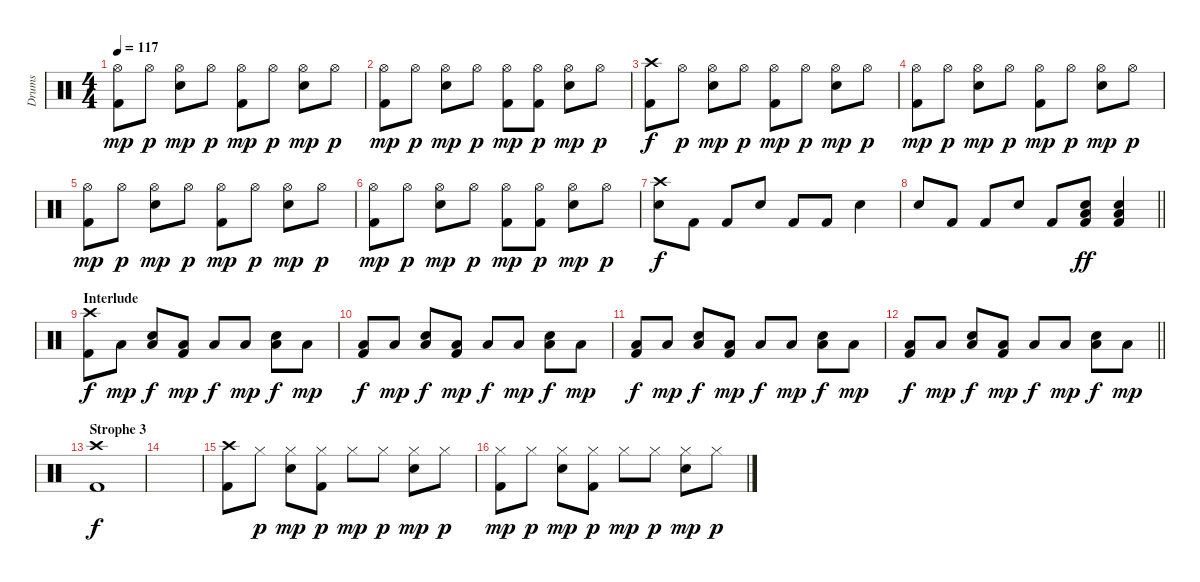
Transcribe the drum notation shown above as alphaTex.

\track ("Drums" "Drums") {instrument percussion}
\staff {score}
\articulation defaults
\ts (4 4)
\tempo 117
\clef neutral
\ks c
("Hi-Hat (open)" "Kick (hit) 2").8{dy mp} "Hi-Hat (open)".8{dy p} ("Hi-Hat (open)" "Snare (hit) 2").8{dy mp} "Hi-Hat (open)".8{dy p} ("Hi-Hat (open)" "Kick (hit) 2").8{dy mp} "Hi-Hat (open)".8{dy p} ("Hi-Hat (open)" "Snare (hit) 2").8{dy mp} "Hi-Hat (open)".8{dy p} |
("Hi-Hat (open)" "Kick (hit) 2").8{dy mp} "Hi-Hat (open)".8{dy p} ("Hi-Hat (open)" "Snare (hit) 2").8{dy mp} "Hi-Hat (open)".8{dy p} ("Hi-Hat (open)" "Kick (hit) 2").8{dy mp} ("Hi-Hat (open)" "Kick (hit) 2").8{dy p} ("Hi-Hat (open)" "Snare (hit) 2").8{dy mp} "Hi-Hat (open)".8{dy p} |
("Crash high (hit)" "Kick (hit) 2").8{dy f} "Hi-Hat (open)".8{dy p} ("Hi-Hat (open)" "Snare (hit) 2").8{dy mp} "Hi-Hat (open)".8{dy p} ("Hi-Hat (open)" "Kick (hit) 2").8{dy mp} "Hi-Hat (open)".8{dy p} ("Hi-Hat (open)" "Snare (hit) 2").8{dy mp} "Hi-Hat (open)".8{dy p} |
("Hi-Hat (open)" "Kick (hit) 2").8{dy mp} "Hi-Hat (open)".8{dy p} ("Hi-Hat (open)" "Snare (hit) 2").8{dy mp} "Hi-Hat (open)".8{dy p} ("Hi-Hat (open)" "Kick (hit) 2").8{dy mp} "Hi-Hat (open)".8{dy p} ("Hi-Hat (open)" "Snare (hit) 2").8{dy mp} "Hi-Hat (open)".8{dy p} |
("Hi-Hat (open)" "Kick (hit) 2").8{dy mp} "Hi-Hat (open)".8{dy p} ("Hi-Hat (open)" "Snare (hit) 2").8{dy mp} "Hi-Hat (open)".8{dy p} ("Hi-Hat (open)" "Kick (hit) 2").8{dy mp} "Hi-Hat (open)".8{dy p} ("Hi-Hat (open)" "Snare (hit) 2").8{dy mp} "Hi-Hat (open)".8{dy p} |
("Hi-Hat (open)" "Kick (hit) 2").8{dy mp} "Hi-Hat (open)".8{dy p} ("Hi-Hat (open)" "Snare (hit) 2").8{dy mp} "Hi-Hat (open)".8{dy p} ("Hi-Hat (open)" "Kick (hit) 2").8{dy mp} ("Hi-Hat (open)" "Kick (hit) 2").8{dy p} ("Hi-Hat (open)" "Snare (hit) 2").8{dy mp} "Hi-Hat (open)".8{dy p} |
("Crash high (hit)" "Snare (hit) 2").8{dy f} "Kick (hit) 2".8 "Kick (hit) 2".8 "Snare (hit) 2".8 "Kick (hit) 2".8 "Kick (hit) 2".8 "Snare (hit) 2".4 |
\barLineRight lightlight "Snare (hit) 2".8 "Kick (hit) 2".8 "Kick (hit) 2".8 "Snare (hit) 2".8 "Kick (hit) 2".8
("Low Floor Tom (hit)" "Snare (hit) 2" "Kick (hit) 2").8{dy ff} ("Low Floor Tom (hit)" "Snare (hit) 2" "Kick (hit) 2").4 |
\section ("" "Interlude")
("Crash high (hit)" "Kick (hit) 2").8{dy f} "Low Floor Tom (hit)".8{dy mp} ("Low Floor Tom (hit)" "Snare (hit) 2").8{dy f} ("Low Floor Tom (hit)" "Kick (hit) 2").8{dy mp} "Low Floor Tom (hit)".8{dy f} "Low Floor Tom (hit)".8{dy mp} ("Low Floor Tom (hit)" "Snare (hit) 2").8{dy f} "Low Floor Tom (hit)".8{dy mp} |
("Low Floor Tom (hit)" "Kick (hit) 2").8{dy f} "Low Floor Tom (hit)".8{dy mp} ("Low Floor Tom (hit)" "Snare (hit) 2").8{dy f} ("Low Floor Tom (hit)" "Kick (hit) 2").8{dy mp} "Low Floor Tom (hit)".8{dy f} "Low Floor Tom (hit)".8{dy mp} ("Low Floor Tom (hit)" "Snare (hit) 2").8{dy f} "Low Floor Tom (hit)".8{dy mp} |
("Low Floor Tom (hit)" "Kick (hit) 2").8{dy f} "Low Floor Tom (hit)".8{dy mp} ("Low Floor Tom (hit)" "Snare (hit) 2").8{dy f} ("Low Floor Tom (hit)" "Kick (hit) 2").8{dy mp} "Low Floor Tom (hit)".8{dy f} "Low Floor Tom (hit)".8{dy mp} ("Low Floor Tom (hit)" "Snare (hit) 2").8{dy f} "Low Floor Tom (hit)".8{dy mp} |
\barLineRight lightlight
("Low Floor Tom (hit)" "Kick (hit) 2").8{dy f} "Low Floor Tom (hit)".8{dy mp} ("Low Floor Tom (hit)" "Snare (hit) 2").8{dy f} ("Low Floor Tom (hit)" "Kick (hit) 2").8{dy mp} "Low Floor Tom (hit)".8{dy f} "Low Floor Tom (hit)".8{dy mp} ("Low Floor Tom (hit)" "Snare (hit) 2").8{dy f} "Low Floor Tom (hit)".8{dy mp} |
\section ("" "Strophe 3")
("Crash high (hit)" "Kick (hit) 2").1{dy f} |
|
("Crash high (hit)" "Kick (hit) 2").8 "Hi-Hat (closed)".8{dy p} ("Hi-Hat (closed)" "Snare (hit) 2").8{dy mp} ("Hi-Hat (closed)" "Kick (hit) 2").8{dy p} "Hi-Hat (closed)".8{dy mp} "Hi-Hat (closed)".8{dy p} ("Hi-Hat (closed)" "Snare (hit) 2").8{dy mp} "Hi-Hat (closed)".8{dy p} |
("Hi-Hat (closed)" "Kick (hit) 2").8{dy mp} "Hi-Hat (closed)".8{dy p} ("Hi-Hat (closed)" "Snare (hit) 2").8{dy mp} ("Hi-Hat (closed)" "Kick (hit) 2").8{dy p} "Hi-Hat (closed)".8{dy mp} "Hi-Hat (closed)".8{dy p} ("Hi-Hat (closed)" "Snare (hit) 2").8{dy mp} "Hi-Hat (closed)".8{dy p}
